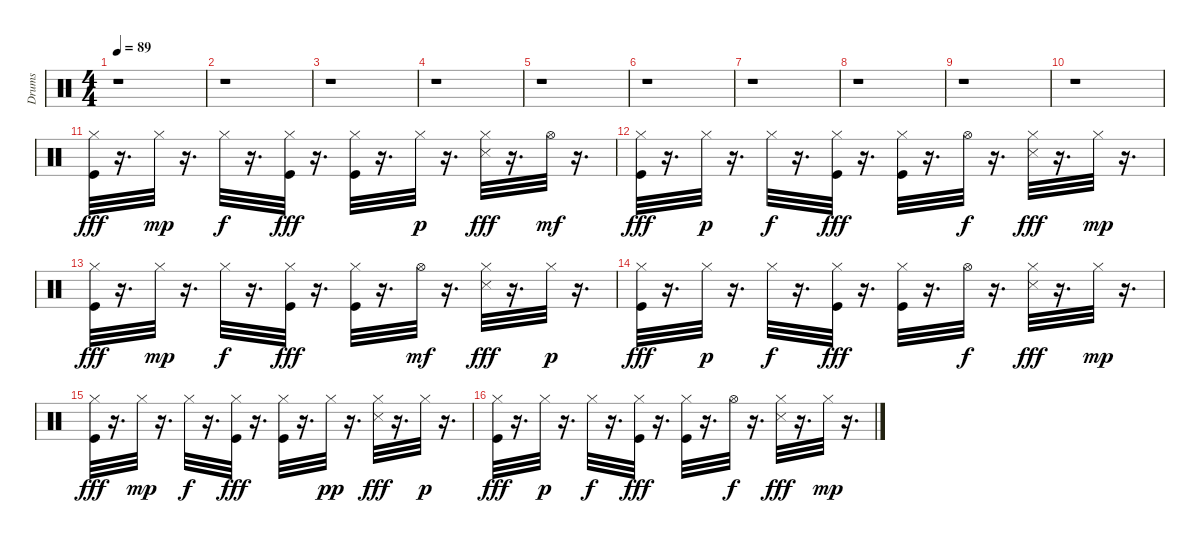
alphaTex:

\track ("Drums" "Drums") {instrument percussion}
\staff {score}
\articulation defaults
\ts (4 4)
\tempo 89
\clef neutral
\ks c
r.1{dy fff} |
r.1 |
r.1 |
r.1 |
r.1 |
r.1 |
r.1 |
r.1 |
r.1 |
r.1 |
("Hi-Hat (closed)" "Kick (hit)").32 r.16{d} "Hi-Hat (closed)".32{dy mp} r.16{d} "Hi-Hat (closed)".32{dy f} r.16{d} ("Hi-Hat (closed)" "Kick (hit)").32{dy fff} r.16{d} ("Hi-Hat (closed)" "Kick (hit)").32 r.16{d} "Hi-Hat (closed)".32{dy p} r.16{d} ("Hi-Hat (closed)" "Snare (side stick) 3").32{dy fff} r.16{d} "Hi-Hat (open)".32{dy mf} r.16{d} |
("Hi-Hat (closed)" "Kick (hit)").32{dy fff} r.16{d} "Hi-Hat (closed)".32{dy p} r.16{d} "Hi-Hat (closed)".32{dy f} r.16{d} ("Hi-Hat (closed)" "Kick (hit)").32{dy fff} r.16{d} ("Hi-Hat (closed)" "Kick (hit)").32 r.16{d} "Hi-Hat (open)".32{dy f} r.16{d} ("Hi-Hat (closed)" "Snare (side stick) 3").32{dy fff} r.16{d} "Hi-Hat (closed)".32{dy mp} r.16{d} |
("Hi-Hat (closed)" "Kick (hit)").32{dy fff} r.16{d} "Hi-Hat (closed)".32{dy mp} r.16{d} "Hi-Hat (closed)".32{dy f} r.16{d} ("Hi-Hat (closed)" "Kick (hit)").32{dy fff} r.16{d} ("Hi-Hat (closed)" "Kick (hit)").32 r.16{d} "Hi-Hat (open)".32{dy mf} r.16{d} ("Hi-Hat (closed)" "Snare (side stick) 3").32{dy fff} r.16{d} "Hi-Hat (closed)".32{dy p} r.16{d} |
("Hi-Hat (closed)" "Kick (hit)").32{dy fff} r.16{d} "Hi-Hat (closed)".32{dy p} r.16{d} "Hi-Hat (closed)".32{dy f} r.16{d} ("Hi-Hat (closed)" "Kick (hit)").32{dy fff} r.16{d} ("Hi-Hat (closed)" "Kick (hit)").32 r.16{d} "Hi-Hat (open)".32{dy f} r.16{d} ("Hi-Hat (closed)" "Snare (side stick) 3").32{dy fff} r.16{d} "Hi-Hat (closed)".32{dy mp} r.16{d} |
("Hi-Hat (closed)" "Kick (hit)").32{dy fff} r.16{d} "Hi-Hat (closed)".32{dy mp} r.16{d} "Hi-Hat (closed)".32{dy f} r.16{d} ("Hi-Hat (closed)" "Kick (hit)").32{dy fff} r.16{d} ("Hi-Hat (closed)" "Kick (hit)").32 r.16{d} "Hi-Hat (closed)".32{dy pp} r.16{d} ("Hi-Hat (closed)" "Snare (side stick) 3").32{dy fff} r.16{d} "Hi-Hat (closed)".32{dy p} r.16{d} |
("Hi-Hat (closed)" "Kick (hit)").32{dy fff} r.16{d} "Hi-Hat (closed)".32{dy p} r.16{d} "Hi-Hat (closed)".32{dy f} r.16{d} ("Hi-Hat (closed)" "Kick (hit)").32{dy fff} r.16{d} ("Hi-Hat (closed)" "Kick (hit)").32 r.16{d} "Hi-Hat (open)".32{dy f} r.16{d} ("Hi-Hat (closed)" "Snare (side stick) 3").32{dy fff} r.16{d} "Hi-Hat (closed)".32{dy mp} r.16{d}
